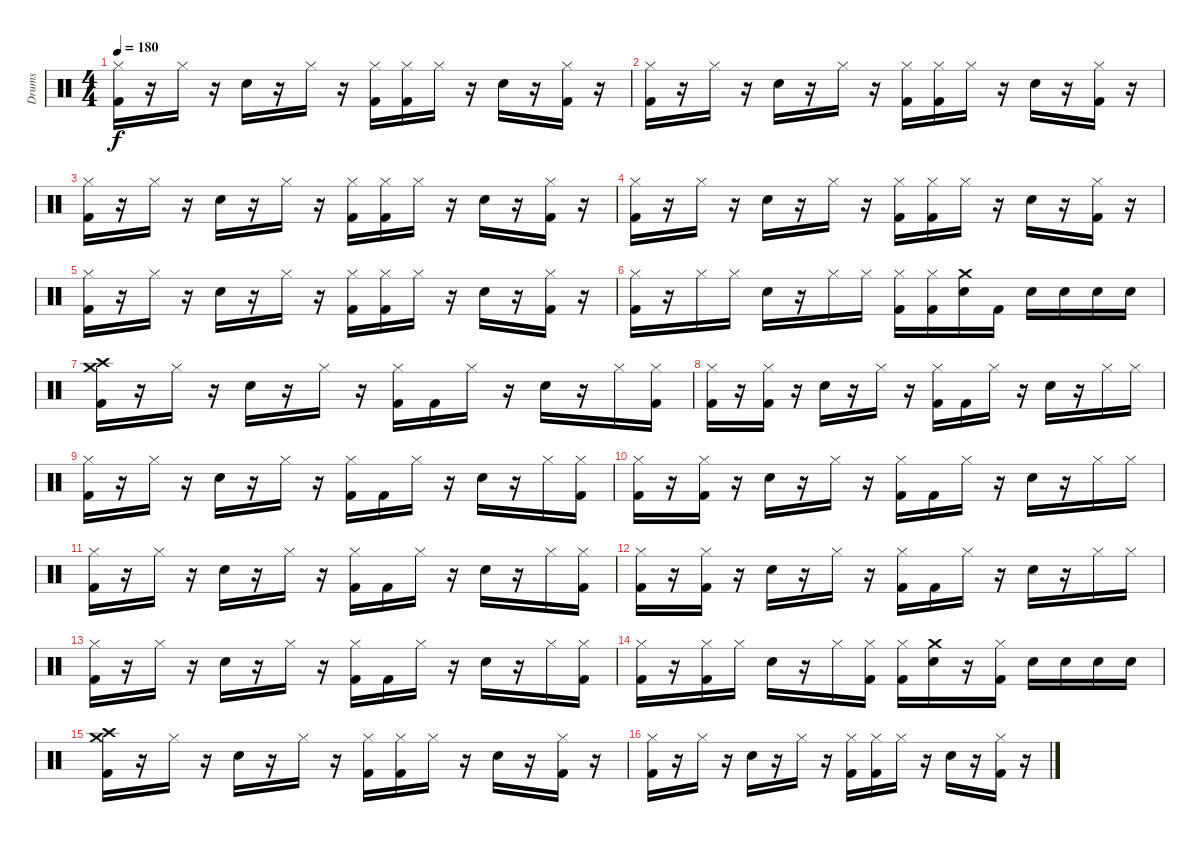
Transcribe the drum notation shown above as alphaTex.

\track ("Drums" "Drums") {instrument percussion}
\staff {score}
\articulation defaults
\ts (4 4)
\tempo 180
\clef neutral
\ks c
("Hi-Hat (closed)" "Kick (hit) 2").16{dy f} r.16 "Hi-Hat (closed)".16 r.16 "Snare (hit) 2".16 r.16 "Hi-Hat (closed)".16 r.16 ("Hi-Hat (closed)" "Kick (hit) 2").16 ("Hi-Hat (closed)" "Kick (hit) 2").16 "Hi-Hat (closed)".16 r.16 "Snare (hit) 2".16 r.16 ("Hi-Hat (closed)" "Kick (hit) 2").16 r.16 |
("Hi-Hat (closed)" "Kick (hit) 2").16 r.16 "Hi-Hat (closed)".16 r.16 "Snare (hit) 2".16 r.16 "Hi-Hat (closed)".16 r.16 ("Hi-Hat (closed)" "Kick (hit) 2").16 ("Hi-Hat (closed)" "Kick (hit) 2").16 "Hi-Hat (closed)".16 r.16 "Snare (hit) 2".16 r.16 ("Hi-Hat (closed)" "Kick (hit) 2").16 r.16 |
("Hi-Hat (closed)" "Kick (hit) 2").16 r.16 "Hi-Hat (closed)".16 r.16 "Snare (hit) 2".16 r.16 "Hi-Hat (closed)".16 r.16 ("Hi-Hat (closed)" "Kick (hit) 2").16 ("Hi-Hat (closed)" "Kick (hit) 2").16 "Hi-Hat (closed)".16 r.16 "Snare (hit) 2".16 r.16 ("Hi-Hat (closed)" "Kick (hit) 2").16 r.16 |
("Hi-Hat (closed)" "Kick (hit) 2").16 r.16 "Hi-Hat (closed)".16 r.16 "Snare (hit) 2".16 r.16 "Hi-Hat (closed)".16 r.16 ("Hi-Hat (closed)" "Kick (hit) 2").16 ("Hi-Hat (closed)" "Kick (hit) 2").16 "Hi-Hat (closed)".16 r.16 "Snare (hit) 2".16 r.16 ("Hi-Hat (closed)" "Kick (hit) 2").16 r.16 |
("Hi-Hat (closed)" "Kick (hit) 2").16 r.16 "Hi-Hat (closed)".16 r.16 "Snare (hit) 2".16 r.16 "Hi-Hat (closed)".16 r.16 ("Hi-Hat (closed)" "Kick (hit) 2").16 ("Hi-Hat (closed)" "Kick (hit) 2").16 "Hi-Hat (closed)".16 r.16 "Snare (hit) 2".16 r.16 ("Hi-Hat (closed)" "Kick (hit) 2").16 r.16 |
("Hi-Hat (closed)" "Kick (hit) 2").16 r.16 "Hi-Hat (closed)".16 "Hi-Hat (closed)".16 "Snare (hit) 2".16 r.16 "Hi-Hat (closed)".16 "Hi-Hat (closed)".16 ("Hi-Hat (closed)" "Kick (hit) 2").16 ("Hi-Hat (closed)" "Kick (hit) 2").16 ("Crash medium (hit)" "Snare (hit) 2").16 "Kick (hit) 2".16 "Snare (hit) 2".16 "Snare (hit) 2".16 "Snare (hit) 2".16 "Snare (hit) 2".16 |
("Crash medium (hit)" "Crash high (hit)" "Kick (hit) 2").16 r.16 "Hi-Hat (closed)".16 r.16 "Snare (hit) 2".16 r.16 "Hi-Hat (closed)".16 r.16 ("Hi-Hat (closed)" "Kick (hit) 2").16 "Kick (hit) 2".16 "Hi-Hat (closed)".16 r.16 "Snare (hit) 2".16 r.16 "Hi-Hat (closed)".16 ("Hi-Hat (closed)" "Kick (hit) 2").16 |
("Hi-Hat (closed)" "Kick (hit) 2").16 r.16 ("Hi-Hat (closed)" "Kick (hit) 2").16 r.16 "Snare (hit) 2".16 r.16 "Hi-Hat (closed)".16 r.16 ("Hi-Hat (closed)" "Kick (hit) 2").16 "Kick (hit) 2".16 "Hi-Hat (closed)".16 r.16 "Snare (hit) 2".16 r.16 "Hi-Hat (closed)".16 "Hi-Hat (closed)".16 |
("Hi-Hat (closed)" "Kick (hit) 2").16 r.16 "Hi-Hat (closed)".16 r.16 "Snare (hit) 2".16 r.16 "Hi-Hat (closed)".16 r.16 ("Hi-Hat (closed)" "Kick (hit) 2").16 "Kick (hit) 2".16 "Hi-Hat (closed)".16 r.16 "Snare (hit) 2".16 r.16 "Hi-Hat (closed)".16 ("Hi-Hat (closed)" "Kick (hit) 2").16 |
("Hi-Hat (closed)" "Kick (hit) 2").16 r.16 ("Hi-Hat (closed)" "Kick (hit) 2").16 r.16 "Snare (hit) 2".16 r.16 "Hi-Hat (closed)".16 r.16 ("Hi-Hat (closed)" "Kick (hit) 2").16 "Kick (hit) 2".16 "Hi-Hat (closed)".16 r.16 "Snare (hit) 2".16 r.16 "Hi-Hat (closed)".16 "Hi-Hat (closed)".16 |
("Hi-Hat (closed)" "Kick (hit) 2").16 r.16 "Hi-Hat (closed)".16 r.16 "Snare (hit) 2".16 r.16 "Hi-Hat (closed)".16 r.16 ("Hi-Hat (closed)" "Kick (hit) 2").16 "Kick (hit) 2".16 "Hi-Hat (closed)".16 r.16 "Snare (hit) 2".16 r.16 "Hi-Hat (closed)".16 ("Hi-Hat (closed)" "Kick (hit) 2").16 |
("Hi-Hat (closed)" "Kick (hit) 2").16 r.16 ("Hi-Hat (closed)" "Kick (hit) 2").16 r.16 "Snare (hit) 2".16 r.16 "Hi-Hat (closed)".16 r.16 ("Hi-Hat (closed)" "Kick (hit) 2").16 "Kick (hit) 2".16 "Hi-Hat (closed)".16 r.16 "Snare (hit) 2".16 r.16 "Hi-Hat (closed)".16 "Hi-Hat (closed)".16 |
("Hi-Hat (closed)" "Kick (hit) 2").16 r.16 "Hi-Hat (closed)".16 r.16 "Snare (hit) 2".16 r.16 "Hi-Hat (closed)".16 r.16 ("Hi-Hat (closed)" "Kick (hit) 2").16 "Kick (hit) 2".16 "Hi-Hat (closed)".16 r.16 "Snare (hit) 2".16 r.16 "Hi-Hat (closed)".16 ("Hi-Hat (closed)" "Kick (hit) 2").16 |
("Hi-Hat (closed)" "Kick (hit) 2").16 r.16 ("Hi-Hat (closed)" "Kick (hit) 2").16 "Hi-Hat (closed)".16 "Snare (hit) 2".16 r.16 "Hi-Hat (closed)".16 ("Hi-Hat (closed)" "Kick (hit) 2").16 ("Hi-Hat (closed)" "Kick (hit) 2").16 ("Crash medium (hit)" "Snare (hit) 2").16 r.16 ("Hi-Hat (closed)" "Kick (hit) 2").16 "Snare (hit) 2".16 "Snare (hit) 2".16 "Snare (hit) 2".16 "Snare (hit) 2".16 |
("Crash medium (hit)" "Crash high (hit)" "Kick (hit) 2").16 r.16 "Hi-Hat (closed)".16 r.16 "Snare (hit) 2".16 r.16 "Hi-Hat (closed)".16 r.16 ("Hi-Hat (closed)" "Kick (hit) 2").16 ("Hi-Hat (closed)" "Kick (hit) 2").16 "Hi-Hat (closed)".16 r.16 "Snare (hit) 2".16 r.16 ("Hi-Hat (closed)" "Kick (hit) 2").16 r.16 |
("Hi-Hat (closed)" "Kick (hit) 2").16 r.16 "Hi-Hat (closed)".16 r.16 "Snare (hit) 2".16 r.16 "Hi-Hat (closed)".16 r.16 ("Hi-Hat (closed)" "Kick (hit) 2").16 ("Hi-Hat (closed)" "Kick (hit) 2").16 "Hi-Hat (closed)".16 r.16 "Snare (hit) 2".16 r.16 ("Hi-Hat (closed)" "Kick (hit) 2").16 r.16
